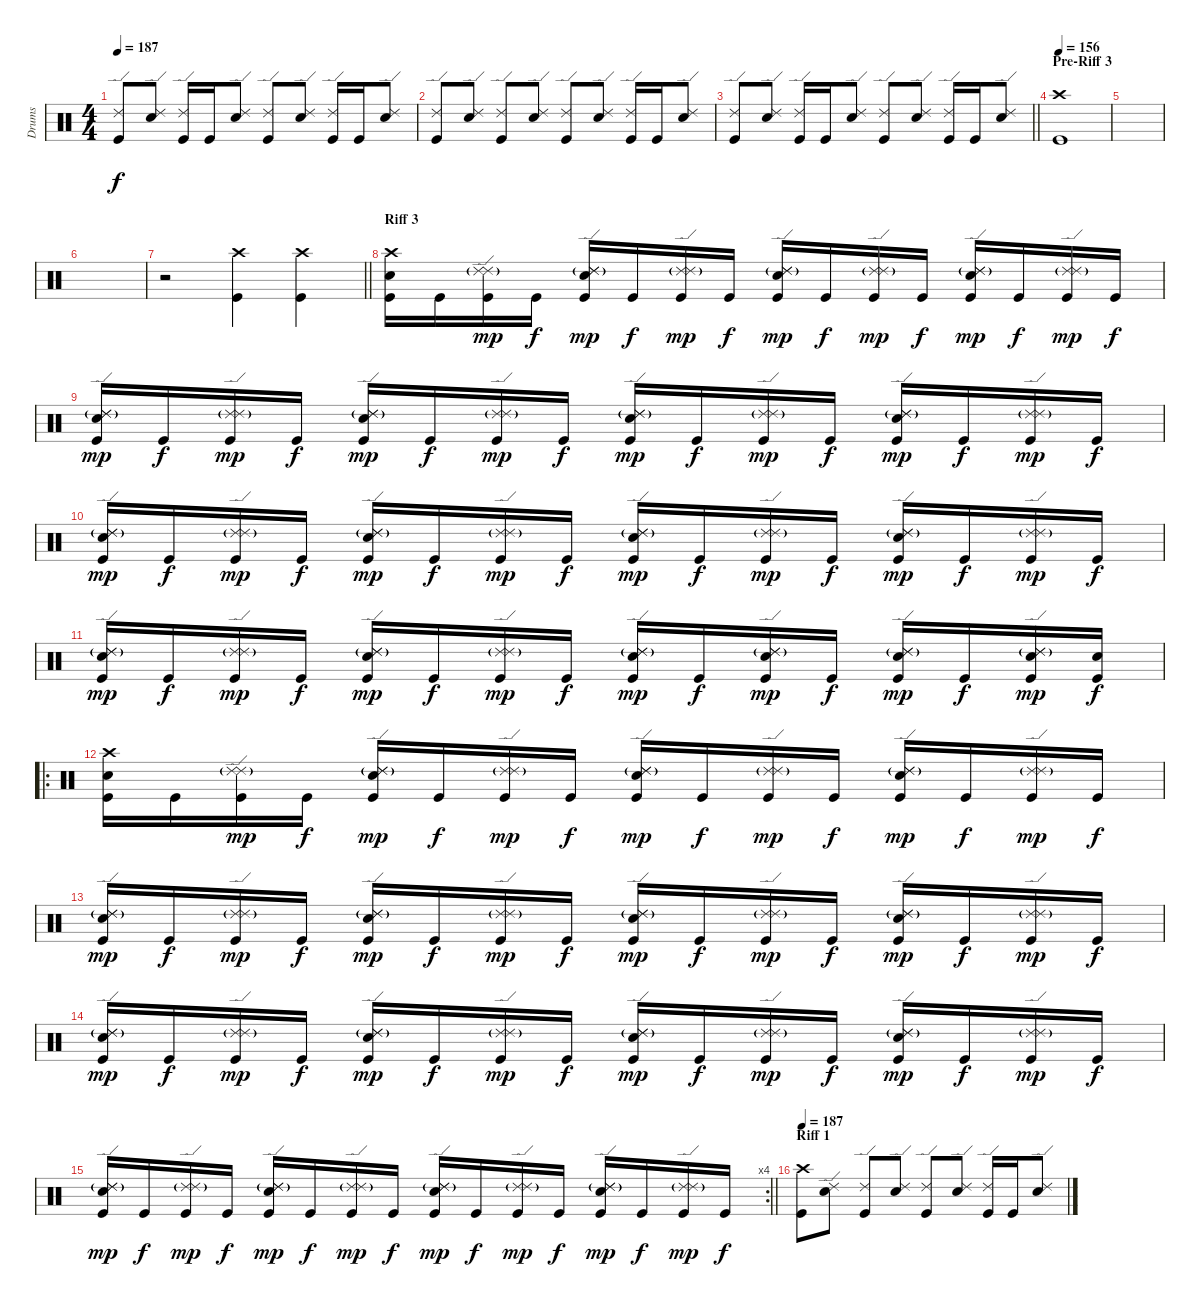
\track ("Drums" "Drums") {instrument percussion}
\staff {score}
\articulation defaults
\ts (4 4)
\tempo 187
\clef neutral
\ks c
("Ride (edge) 2" "Kick (hit)").8{dy f} ("Ride (edge) 2" "Snare (hit) 2").8 ("Ride (edge) 2" "Kick (hit)").16 "Kick (hit)".16 ("Ride (edge) 2" "Snare (hit) 2").8 ("Ride (edge) 2" "Kick (hit)").8 ("Ride (edge) 2" "Snare (hit) 2").8 ("Ride (edge) 2" "Kick (hit)").16 "Kick (hit)".16 ("Ride (edge) 2" "Snare (hit) 2").8 |
("Ride (edge) 2" "Kick (hit)").8 ("Ride (edge) 2" "Snare (hit) 2").8 ("Ride (edge) 2" "Kick (hit)").8 ("Ride (edge) 2" "Snare (hit) 2").8 ("Ride (edge) 2" "Kick (hit)").8 ("Ride (edge) 2" "Snare (hit) 2").8 ("Ride (edge) 2" "Kick (hit)").16 "Kick (hit)".16 ("Ride (edge) 2" "Snare (hit) 2").8 |
\barLineRight lightlight
("Ride (edge) 2" "Kick (hit)").8 ("Ride (edge) 2" "Snare (hit) 2").8 ("Ride (edge) 2" "Kick (hit)").16 "Kick (hit)".16 ("Ride (edge) 2" "Snare (hit) 2").8 ("Ride (edge) 2" "Kick (hit)").8 ("Ride (edge) 2" "Snare (hit) 2").8 ("Ride (edge) 2" "Kick (hit)").16 "Kick (hit)".16 ("Ride (edge) 2" "Snare (hit) 2").8 |
\section ("" "Pre-Riff 3")
\tempo 156
("Crash high (hit)" "Kick (hit)").1 |
|
|
\barLineRight lightlight
r.2 ("Crash high (hit)" "Kick (hit)").4 ("Crash high (hit)" "Kick (hit)").4 |
\section ("" "Riff 3")
("Crash high (hit)" "Snare (hit) 2" "Kick (hit)").16 "Kick (hit)".16 ("Ride (edge) 2" "Ride (edge) 2"{g} "Kick (hit)").16{dy mp} "Kick (hit)".16{dy f} ("Ride (edge) 2" "Ride (edge) 2"{g} "Snare (hit) 2" "Kick (hit)").16{dy mp} "Kick (hit)".16{dy f} ("Ride (edge) 2" "Ride (edge) 2"{g} "Kick (hit)").16{dy mp} "Kick (hit)".16{dy f} ("Ride (edge) 2" "Ride (edge) 2"{g} "Snare (hit) 2" "Kick (hit)").16{dy mp} "Kick (hit)".16{dy f} ("Ride (edge) 2" "Ride (edge) 2"{g} "Kick (hit)").16{dy mp} "Kick (hit)".16{dy f} ("Ride (edge) 2" "Ride (edge) 2"{g} "Snare (hit) 2" "Kick (hit)").16{dy mp} "Kick (hit)".16{dy f} ("Ride (edge) 2" "Ride (edge) 2"{g} "Kick (hit)").16{dy mp} "Kick (hit)".16{dy f} |
("Ride (edge) 2" "Ride (edge) 2"{g} "Snare (hit) 2" "Kick (hit)").16{dy mp} "Kick (hit)".16{dy f} ("Ride (edge) 2" "Ride (edge) 2"{g} "Kick (hit)").16{dy mp} "Kick (hit)".16{dy f} ("Ride (edge) 2" "Ride (edge) 2"{g} "Snare (hit) 2" "Kick (hit)").16{dy mp} "Kick (hit)".16{dy f} ("Ride (edge) 2" "Ride (edge) 2"{g} "Kick (hit)").16{dy mp} "Kick (hit)".16{dy f} ("Ride (edge) 2" "Ride (edge) 2"{g} "Snare (hit) 2" "Kick (hit)").16{dy mp} "Kick (hit)".16{dy f} ("Ride (edge) 2" "Ride (edge) 2"{g} "Kick (hit)").16{dy mp} "Kick (hit)".16{dy f} ("Ride (edge) 2" "Ride (edge) 2"{g} "Snare (hit) 2" "Kick (hit)").16{dy mp} "Kick (hit)".16{dy f} ("Ride (edge) 2" "Ride (edge) 2"{g} "Kick (hit)").16{dy mp} "Kick (hit)".16{dy f} |
("Ride (edge) 2" "Ride (edge) 2"{g} "Snare (hit) 2" "Kick (hit)").16{dy mp} "Kick (hit)".16{dy f} ("Ride (edge) 2" "Ride (edge) 2"{g} "Kick (hit)").16{dy mp} "Kick (hit)".16{dy f} ("Ride (edge) 2" "Ride (edge) 2"{g} "Snare (hit) 2" "Kick (hit)").16{dy mp} "Kick (hit)".16{dy f} ("Ride (edge) 2" "Ride (edge) 2"{g} "Kick (hit)").16{dy mp} "Kick (hit)".16{dy f} ("Ride (edge) 2" "Ride (edge) 2"{g} "Snare (hit) 2" "Kick (hit)").16{dy mp} "Kick (hit)".16{dy f} ("Ride (edge) 2" "Ride (edge) 2"{g} "Kick (hit)").16{dy mp} "Kick (hit)".16{dy f} ("Ride (edge) 2" "Ride (edge) 2"{g} "Snare (hit) 2" "Kick (hit)").16{dy mp} "Kick (hit)".16{dy f} ("Ride (edge) 2" "Ride (edge) 2"{g} "Kick (hit)").16{dy mp} "Kick (hit)".16{dy f} |
("Ride (edge) 2" "Ride (edge) 2"{g} "Snare (hit) 2" "Kick (hit)").16{dy mp} "Kick (hit)".16{dy f} ("Ride (edge) 2" "Ride (edge) 2"{g} "Kick (hit)").16{dy mp} "Kick (hit)".16{dy f} ("Ride (edge) 2" "Ride (edge) 2"{g} "Snare (hit) 2" "Kick (hit)").16{dy mp} "Kick (hit)".16{dy f} ("Ride (edge) 2" "Ride (edge) 2"{g} "Kick (hit)").16{dy mp} "Kick (hit)".16{dy f} ("Ride (edge) 2" "Ride (edge) 2"{g} "Snare (hit) 2" "Kick (hit)").16{dy mp} "Kick (hit)".16{dy f} ("Ride (edge) 2" "Ride (edge) 2"{g} "Snare (hit) 2" "Kick (hit)").16{dy mp} "Kick (hit)".16{dy f} ("Ride (edge) 2" "Ride (edge) 2"{g} "Snare (hit) 2" "Kick (hit)").16{dy mp} "Kick (hit)".16{dy f} ("Ride (edge) 2" "Ride (edge) 2"{g} "Snare (hit) 2" "Kick (hit)").16{dy mp} ("Snare (hit) 2" "Kick (hit)").16{dy f} |
\ro
("Crash high (hit)" "Snare (hit) 2" "Kick (hit)").16 "Kick (hit)".16 ("Ride (edge) 2" "Ride (edge) 2"{g} "Kick (hit)").16{dy mp} "Kick (hit)".16{dy f} ("Ride (edge) 2" "Ride (edge) 2"{g} "Snare (hit) 2" "Kick (hit)").16{dy mp} "Kick (hit)".16{dy f} ("Ride (edge) 2" "Ride (edge) 2"{g} "Kick (hit)").16{dy mp} "Kick (hit)".16{dy f} ("Ride (edge) 2" "Ride (edge) 2"{g} "Snare (hit) 2" "Kick (hit)").16{dy mp} "Kick (hit)".16{dy f} ("Ride (edge) 2" "Ride (edge) 2"{g} "Kick (hit)").16{dy mp} "Kick (hit)".16{dy f} ("Ride (edge) 2" "Ride (edge) 2"{g} "Snare (hit) 2" "Kick (hit)").16{dy mp} "Kick (hit)".16{dy f} ("Ride (edge) 2" "Ride (edge) 2"{g} "Kick (hit)").16{dy mp} "Kick (hit)".16{dy f} |
("Ride (edge) 2" "Ride (edge) 2"{g} "Snare (hit) 2" "Kick (hit)").16{dy mp} "Kick (hit)".16{dy f} ("Ride (edge) 2" "Ride (edge) 2"{g} "Kick (hit)").16{dy mp} "Kick (hit)".16{dy f} ("Ride (edge) 2" "Ride (edge) 2"{g} "Snare (hit) 2" "Kick (hit)").16{dy mp} "Kick (hit)".16{dy f} ("Ride (edge) 2" "Ride (edge) 2"{g} "Kick (hit)").16{dy mp} "Kick (hit)".16{dy f} ("Ride (edge) 2" "Ride (edge) 2"{g} "Snare (hit) 2" "Kick (hit)").16{dy mp} "Kick (hit)".16{dy f} ("Ride (edge) 2" "Ride (edge) 2"{g} "Kick (hit)").16{dy mp} "Kick (hit)".16{dy f} ("Ride (edge) 2" "Ride (edge) 2"{g} "Snare (hit) 2" "Kick (hit)").16{dy mp} "Kick (hit)".16{dy f} ("Ride (edge) 2" "Ride (edge) 2"{g} "Kick (hit)").16{dy mp} "Kick (hit)".16{dy f} |
("Ride (edge) 2" "Ride (edge) 2"{g} "Snare (hit) 2" "Kick (hit)").16{dy mp} "Kick (hit)".16{dy f} ("Ride (edge) 2" "Ride (edge) 2"{g} "Kick (hit)").16{dy mp} "Kick (hit)".16{dy f} ("Ride (edge) 2" "Ride (edge) 2"{g} "Snare (hit) 2" "Kick (hit)").16{dy mp} "Kick (hit)".16{dy f} ("Ride (edge) 2" "Ride (edge) 2"{g} "Kick (hit)").16{dy mp} "Kick (hit)".16{dy f} ("Ride (edge) 2" "Ride (edge) 2"{g} "Snare (hit) 2" "Kick (hit)").16{dy mp} "Kick (hit)".16{dy f} ("Ride (edge) 2" "Ride (edge) 2"{g} "Kick (hit)").16{dy mp} "Kick (hit)".16{dy f} ("Ride (edge) 2" "Ride (edge) 2"{g} "Snare (hit) 2" "Kick (hit)").16{dy mp} "Kick (hit)".16{dy f} ("Ride (edge) 2" "Ride (edge) 2"{g} "Kick (hit)").16{dy mp} "Kick (hit)".16{dy f} |
\rc 4
\barLineRight lightlight
("Ride (edge) 2" "Ride (edge) 2"{g} "Snare (hit) 2" "Kick (hit)").16{dy mp} "Kick (hit)".16{dy f} ("Ride (edge) 2" "Ride (edge) 2"{g} "Kick (hit)").16{dy mp} "Kick (hit)".16{dy f} ("Ride (edge) 2" "Ride (edge) 2"{g} "Snare (hit) 2" "Kick (hit)").16{dy mp} "Kick (hit)".16{dy f} ("Ride (edge) 2" "Ride (edge) 2"{g} "Kick (hit)").16{dy mp} "Kick (hit)".16{dy f} ("Ride (edge) 2" "Ride (edge) 2"{g} "Snare (hit) 2" "Kick (hit)").16{dy mp} "Kick (hit)".16{dy f} ("Ride (edge) 2" "Ride (edge) 2"{g} "Kick (hit)").16{dy mp} "Kick (hit)".16{dy f} ("Ride (edge) 2" "Ride (edge) 2"{g} "Snare (hit) 2" "Kick (hit)").16{dy mp} "Kick (hit)".16{dy f} ("Ride (edge) 2" "Ride (edge) 2"{g} "Kick (hit)").16{dy mp} "Kick (hit)".16{dy f} |
\section ("" "Riff 1")
\tempo 187
("Crash high (hit)" "Kick (hit)").8 ("Ride (edge) 2" "Snare (hit) 2").8 ("Ride (edge) 2" "Kick (hit)").8 ("Ride (edge) 2" "Snare (hit) 2").8 ("Ride (edge) 2" "Kick (hit)").8 ("Ride (edge) 2" "Snare (hit) 2").8 ("Ride (edge) 2" "Kick (hit)").16 "Kick (hit)".16 ("Ride (edge) 2" "Snare (hit) 2").8
